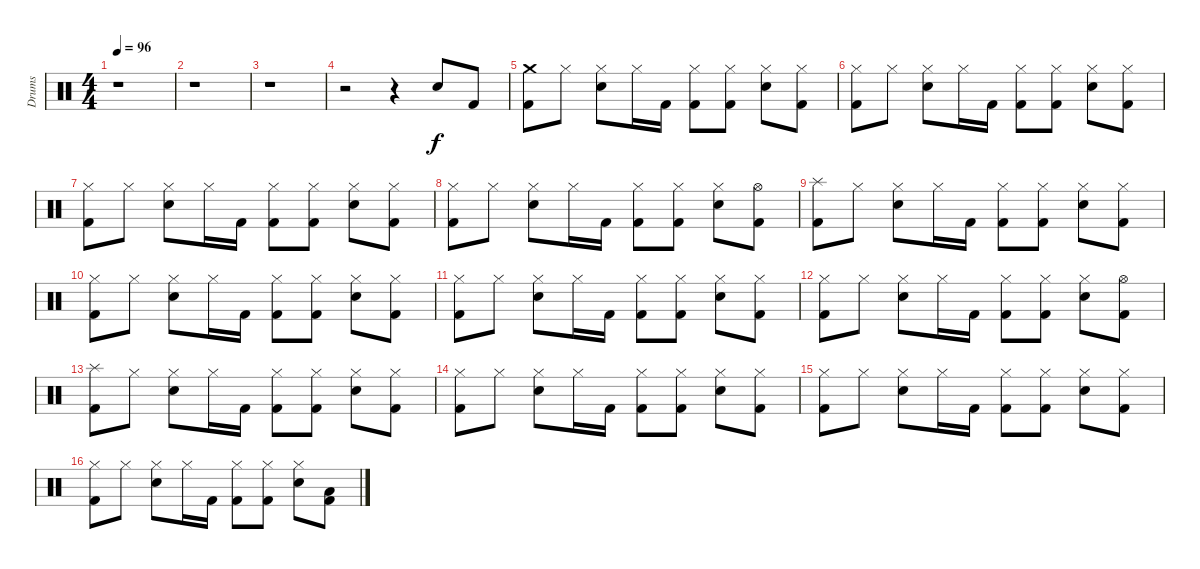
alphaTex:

\track ("Drums" "Drums") {instrument percussion}
\staff {score}
\articulation defaults
\ts (4 4)
\tempo 96
\clef neutral
\ks c
r.1{dy f} |
r.1 |
r.1 |
r.2 r.4 "Snare (hit) 2".8 "Kick (hit) 2".8 |
("Crash medium (hit)" "Kick (hit) 2").8 "Hi-Hat (closed)".8 ("Hi-Hat (closed)" "Snare (hit) 2").8 "Hi-Hat (closed)".16 "Kick (hit) 2".16 ("Hi-Hat (closed)" "Kick (hit) 2").8 ("Hi-Hat (closed)" "Kick (hit) 2").8 ("Hi-Hat (closed)" "Snare (hit) 2").8 ("Hi-Hat (closed)" "Kick (hit) 2").8 |
("Hi-Hat (closed)" "Kick (hit) 2").8 "Hi-Hat (closed)".8 ("Hi-Hat (closed)" "Snare (hit) 2").8 "Hi-Hat (closed)".16 "Kick (hit) 2".16 ("Hi-Hat (closed)" "Kick (hit) 2").8 ("Hi-Hat (closed)" "Kick (hit) 2").8 ("Hi-Hat (closed)" "Snare (hit) 2").8 ("Hi-Hat (closed)" "Kick (hit) 2").8 |
("Hi-Hat (closed)" "Kick (hit) 2").8 "Hi-Hat (closed)".8 ("Hi-Hat (closed)" "Snare (hit) 2").8 "Hi-Hat (closed)".16 "Kick (hit) 2".16 ("Hi-Hat (closed)" "Kick (hit) 2").8 ("Hi-Hat (closed)" "Kick (hit) 2").8 ("Hi-Hat (closed)" "Snare (hit) 2").8 ("Hi-Hat (closed)" "Kick (hit) 2").8 |
("Hi-Hat (closed)" "Kick (hit) 2").8 "Hi-Hat (closed)".8 ("Hi-Hat (closed)" "Snare (hit) 2").8 "Hi-Hat (closed)".16 "Kick (hit) 2".16 ("Hi-Hat (closed)" "Kick (hit) 2").8 ("Hi-Hat (closed)" "Kick (hit) 2").8 ("Hi-Hat (closed)" "Snare (hit) 2").8 ("Hi-Hat (open)" "Kick (hit) 2").8 |
("Splash (hit)" "Kick (hit) 2").8 "Hi-Hat (closed)".8 ("Hi-Hat (closed)" "Snare (hit) 2").8 "Hi-Hat (closed)".16 "Kick (hit) 2".16 ("Hi-Hat (closed)" "Kick (hit) 2").8 ("Hi-Hat (closed)" "Kick (hit) 2").8 ("Hi-Hat (closed)" "Snare (hit) 2").8 ("Hi-Hat (closed)" "Kick (hit) 2").8 |
("Hi-Hat (closed)" "Kick (hit) 2").8 "Hi-Hat (closed)".8 ("Hi-Hat (closed)" "Snare (hit) 2").8 "Hi-Hat (closed)".16 "Kick (hit) 2".16 ("Hi-Hat (closed)" "Kick (hit) 2").8 ("Hi-Hat (closed)" "Kick (hit) 2").8 ("Hi-Hat (closed)" "Snare (hit) 2").8 ("Hi-Hat (closed)" "Kick (hit) 2").8 |
("Hi-Hat (closed)" "Kick (hit) 2").8 "Hi-Hat (closed)".8 ("Hi-Hat (closed)" "Snare (hit) 2").8 "Hi-Hat (closed)".16 "Kick (hit) 2".16 ("Hi-Hat (closed)" "Kick (hit) 2").8 ("Hi-Hat (closed)" "Kick (hit) 2").8 ("Hi-Hat (closed)" "Snare (hit) 2").8 ("Hi-Hat (closed)" "Kick (hit) 2").8 |
("Hi-Hat (closed)" "Kick (hit) 2").8 "Hi-Hat (closed)".8 ("Hi-Hat (closed)" "Snare (hit) 2").8 "Hi-Hat (closed)".16 "Kick (hit) 2".16 ("Hi-Hat (closed)" "Kick (hit) 2").8 ("Hi-Hat (closed)" "Kick (hit) 2").8 ("Hi-Hat (closed)" "Snare (hit) 2").8 ("Hi-Hat (open)" "Kick (hit) 2").8 |
("Splash (hit)" "Kick (hit) 2").8 "Hi-Hat (closed)".8 ("Hi-Hat (closed)" "Snare (hit) 2").8 "Hi-Hat (closed)".16 "Kick (hit) 2".16 ("Hi-Hat (closed)" "Kick (hit) 2").8 ("Hi-Hat (closed)" "Kick (hit) 2").8 ("Hi-Hat (closed)" "Snare (hit) 2").8 ("Hi-Hat (closed)" "Kick (hit) 2").8 |
("Hi-Hat (closed)" "Kick (hit) 2").8 "Hi-Hat (closed)".8 ("Hi-Hat (closed)" "Snare (hit) 2").8 "Hi-Hat (closed)".16 "Kick (hit) 2".16 ("Hi-Hat (closed)" "Kick (hit) 2").8 ("Hi-Hat (closed)" "Kick (hit) 2").8 ("Hi-Hat (closed)" "Snare (hit) 2").8 ("Hi-Hat (closed)" "Kick (hit) 2").8 |
("Hi-Hat (closed)" "Kick (hit) 2").8 "Hi-Hat (closed)".8 ("Hi-Hat (closed)" "Snare (hit) 2").8 "Hi-Hat (closed)".16 "Kick (hit) 2".16 ("Hi-Hat (closed)" "Kick (hit) 2").8 ("Hi-Hat (closed)" "Kick (hit) 2").8 ("Hi-Hat (closed)" "Snare (hit) 2").8 ("Hi-Hat (closed)" "Kick (hit) 2").8 |
("Hi-Hat (closed)" "Kick (hit) 2").8 "Hi-Hat (closed)".8 ("Hi-Hat (closed)" "Snare (hit) 2").8 "Hi-Hat (closed)".16 "Kick (hit) 2".16 ("Hi-Hat (closed)" "Kick (hit) 2").8 ("Hi-Hat (closed)" "Kick (hit) 2").8 ("Hi-Hat (closed)" "Snare (hit) 2").8 ("Low Tom (hit)" "Kick (hit) 2").8
